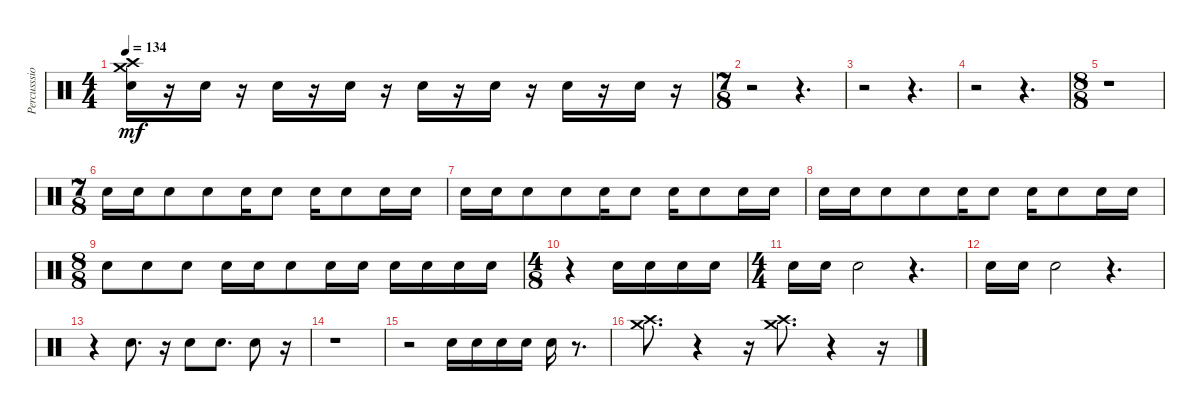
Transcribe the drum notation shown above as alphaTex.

\track ("Percusssion" "Percusssio") {instrument percussion}
\staff {score}
\articulation defaults
\ts (4 4)
\tempo 134
\clef neutral
\ks c
("Snare (hit) 2" "Crash high (hit)" "Crash medium (hit)").16{dy mf} r.16 "Snare (hit) 2".16 r.16 "Snare (hit) 2".16 r.16 "Snare (hit) 2".16 r.16 "Snare (hit) 2".16 r.16 "Snare (hit) 2".16 r.16 "Snare (hit) 2".16 r.16 "Snare (hit) 2".16 r.16 |
\ts (7 8)
r.2 r.4{d} |
r.2 r.4{d} |
r.2 r.4{d} |
\ts (8 8)
r.1 |
\ts (7 8)
"Snare (hit) 2".16 "Snare (hit) 2".16 "Snare (hit) 2".8 "Snare (hit) 2".8 "Snare (hit) 2".16 "Snare (hit) 2".8 "Snare (hit) 2".16 "Snare (hit) 2".8 "Snare (hit) 2".16 "Snare (hit) 2".16 |
"Snare (hit) 2".16 "Snare (hit) 2".16 "Snare (hit) 2".8 "Snare (hit) 2".8 "Snare (hit) 2".16 "Snare (hit) 2".8 "Snare (hit) 2".16 "Snare (hit) 2".8 "Snare (hit) 2".16 "Snare (hit) 2".16 |
"Snare (hit) 2".16 "Snare (hit) 2".16 "Snare (hit) 2".8 "Snare (hit) 2".8 "Snare (hit) 2".16 "Snare (hit) 2".8 "Snare (hit) 2".16 "Snare (hit) 2".8 "Snare (hit) 2".16 "Snare (hit) 2".16 |
\ts (8 8)
"Snare (hit) 2".8 "Snare (hit) 2".8 "Snare (hit) 2".8 "Snare (hit) 2".16 "Snare (hit) 2".16 "Snare (hit) 2".8 "Snare (hit) 2".16 "Snare (hit) 2".16 "Snare (hit) 2".16 "Snare (hit) 2".16 "Snare (hit) 2".16 "Snare (hit) 2".16 |
\ts (4 8)
r.4 "Snare (hit) 2".16 "Snare (hit) 2".16 "Snare (hit) 2".16 "Snare (hit) 2".16 |
\ts (4 4)
"Snare (hit) 2".16 "Snare (hit) 2".16 "Snare (hit) 2".2 r.4{d} |
"Snare (hit) 2".16 "Snare (hit) 2".16 "Snare (hit) 2".2 r.4{d} |
r.4 "Snare (hit) 2".8{d} r.16 "Snare (hit) 2".8 "Snare (hit) 2".8{d} "Snare (hit) 2".8 r.16 |
r.1 |
r.2 "Snare (hit) 2".16 "Snare (hit) 2".16 "Snare (hit) 2".16 "Snare (hit) 2".16 "Snare (hit) 2".16 r.8{d} |
("Crash high (hit)" "Crash medium (hit)").8{d} r.4 r.16 ("Crash high (hit)" "Crash medium (hit)").8{d} r.4 r.16
